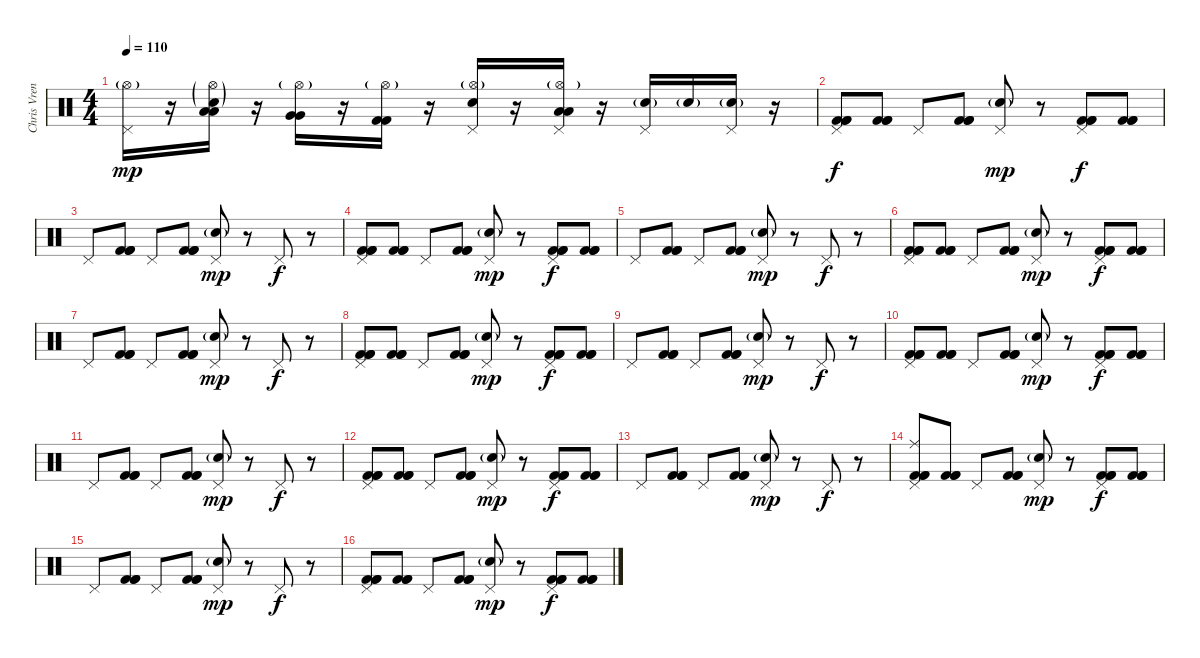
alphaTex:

\track ("Chris Vrenna " "Chris Vren") {instrument percussion}
\staff {score}
\articulation defaults
\ts (4 4)
\tempo 110
\clef neutral
\ks c
("Pedal Hi-Hat (hit)" "Hi-Hat (open)"{g}).16{dy mp} r.16 ("Snare (hit) 2"{g} "Hi-Hat (open)"{g} "Low Tom (hit)" "Low Tom (hit)").16 r.16 ("Hi-Hat (open)"{g} "Very Low Tom (hit)" "Very Low Tom (hit)").16 r.16 ("Hi-Hat (open)"{g} "Kick (hit) 2" "Kick (hit) 2").16 r.16 ("Pedal Hi-Hat (hit)" "Hi-Hat (open)"{g} "Electric Snare (hit)").16 r.16 ("Pedal Hi-Hat (hit)" "Hi-Hat (open)"{g} "Low Floor Tom (hit)" "Low Floor Tom (hit)").16 r.16 ("Electric Snare (hit)"{g} "Pedal Hi-Hat (hit)").16 "Electric Snare (hit)"{g}.16 ("Electric Snare (hit)"{g} "Pedal Hi-Hat (hit)").16 r.16 |
("Pedal Hi-Hat (hit)" "Kick (hit) 2" "Kick (hit) 2" "Kick (hit) 2").8{dy f} ("Kick (hit) 2" "Kick (hit) 2" "Kick (hit) 2").8 "Pedal Hi-Hat (hit)".8 ("Kick (hit) 2" "Kick (hit) 2" "Kick (hit) 2").8 ("Pedal Hi-Hat (hit)" "Electric Snare (hit)"{g}).8{dy mp} r.8 ("Pedal Hi-Hat (hit)" "Kick (hit) 2" "Kick (hit) 2" "Kick (hit) 2").8{dy f} ("Kick (hit) 2" "Kick (hit) 2" "Kick (hit) 2").8 |
"Pedal Hi-Hat (hit)".8 ("Kick (hit) 2" "Kick (hit) 2" "Kick (hit) 2").8 "Pedal Hi-Hat (hit)".8 ("Kick (hit) 2" "Kick (hit) 2" "Kick (hit) 2").8 ("Pedal Hi-Hat (hit)" "Electric Snare (hit)"{g}).8{dy mp} r.8 "Pedal Hi-Hat (hit)".8{dy f} r.8 |
("Pedal Hi-Hat (hit)" "Kick (hit) 2" "Kick (hit) 2" "Kick (hit) 2").8 ("Kick (hit) 2" "Kick (hit) 2" "Kick (hit) 2").8 "Pedal Hi-Hat (hit)".8 ("Kick (hit) 2" "Kick (hit) 2" "Kick (hit) 2").8 ("Pedal Hi-Hat (hit)" "Electric Snare (hit)"{g}).8{dy mp} r.8 ("Pedal Hi-Hat (hit)" "Kick (hit) 2" "Kick (hit) 2" "Kick (hit) 2").8{dy f} ("Kick (hit) 2" "Kick (hit) 2" "Kick (hit) 2").8 |
"Pedal Hi-Hat (hit)".8 ("Kick (hit) 2" "Kick (hit) 2" "Kick (hit) 2").8 "Pedal Hi-Hat (hit)".8 ("Kick (hit) 2" "Kick (hit) 2" "Kick (hit) 2").8 ("Pedal Hi-Hat (hit)" "Electric Snare (hit)"{g}).8{dy mp} r.8 "Pedal Hi-Hat (hit)".8{dy f} r.8 |
("Pedal Hi-Hat (hit)" "Kick (hit) 2" "Kick (hit) 2" "Kick (hit) 2").8 ("Kick (hit) 2" "Kick (hit) 2" "Kick (hit) 2").8 "Pedal Hi-Hat (hit)".8 ("Kick (hit) 2" "Kick (hit) 2" "Kick (hit) 2").8 ("Pedal Hi-Hat (hit)" "Electric Snare (hit)"{g}).8{dy mp} r.8 ("Pedal Hi-Hat (hit)" "Kick (hit) 2" "Kick (hit) 2" "Kick (hit) 2").8{dy f} ("Kick (hit) 2" "Kick (hit) 2" "Kick (hit) 2").8 |
"Pedal Hi-Hat (hit)".8 ("Kick (hit) 2" "Kick (hit) 2" "Kick (hit) 2").8 "Pedal Hi-Hat (hit)".8 ("Kick (hit) 2" "Kick (hit) 2" "Kick (hit) 2").8 ("Pedal Hi-Hat (hit)" "Electric Snare (hit)"{g}).8{dy mp} r.8 "Pedal Hi-Hat (hit)".8{dy f} r.8 |
("Pedal Hi-Hat (hit)" "Kick (hit) 2" "Kick (hit) 2" "Kick (hit) 2").8 ("Kick (hit) 2" "Kick (hit) 2" "Kick (hit) 2").8 "Pedal Hi-Hat (hit)".8 ("Kick (hit) 2" "Kick (hit) 2" "Kick (hit) 2").8 ("Pedal Hi-Hat (hit)" "Electric Snare (hit)"{g}).8{dy mp} r.8 ("Pedal Hi-Hat (hit)" "Kick (hit) 2" "Kick (hit) 2" "Kick (hit) 2").8{dy f} ("Kick (hit) 2" "Kick (hit) 2" "Kick (hit) 2").8 |
"Pedal Hi-Hat (hit)".8 ("Kick (hit) 2" "Kick (hit) 2" "Kick (hit) 2").8 "Pedal Hi-Hat (hit)".8 ("Kick (hit) 2" "Kick (hit) 2" "Kick (hit) 2").8 ("Pedal Hi-Hat (hit)" "Electric Snare (hit)"{g}).8{dy mp} r.8 "Pedal Hi-Hat (hit)".8{dy f} r.8 |
("Pedal Hi-Hat (hit)" "Kick (hit) 2" "Kick (hit) 2" "Kick (hit) 2").8 ("Kick (hit) 2" "Kick (hit) 2" "Kick (hit) 2").8 "Pedal Hi-Hat (hit)".8 ("Kick (hit) 2" "Kick (hit) 2" "Kick (hit) 2").8 ("Pedal Hi-Hat (hit)" "Electric Snare (hit)"{g}).8{dy mp} r.8 ("Pedal Hi-Hat (hit)" "Kick (hit) 2" "Kick (hit) 2" "Kick (hit) 2").8{dy f} ("Kick (hit) 2" "Kick (hit) 2" "Kick (hit) 2").8 |
"Pedal Hi-Hat (hit)".8 ("Kick (hit) 2" "Kick (hit) 2" "Kick (hit) 2").8 "Pedal Hi-Hat (hit)".8 ("Kick (hit) 2" "Kick (hit) 2" "Kick (hit) 2").8 ("Pedal Hi-Hat (hit)" "Electric Snare (hit)"{g}).8{dy mp} r.8 "Pedal Hi-Hat (hit)".8{dy f} r.8 |
("Pedal Hi-Hat (hit)" "Kick (hit) 2" "Kick (hit) 2" "Kick (hit) 2").8 ("Kick (hit) 2" "Kick (hit) 2" "Kick (hit) 2").8 "Pedal Hi-Hat (hit)".8 ("Kick (hit) 2" "Kick (hit) 2" "Kick (hit) 2").8 ("Pedal Hi-Hat (hit)" "Electric Snare (hit)"{g}).8{dy mp} r.8 ("Pedal Hi-Hat (hit)" "Kick (hit) 2" "Kick (hit) 2" "Kick (hit) 2").8{dy f} ("Kick (hit) 2" "Kick (hit) 2" "Kick (hit) 2").8 |
"Pedal Hi-Hat (hit)".8 ("Kick (hit) 2" "Kick (hit) 2" "Kick (hit) 2").8 "Pedal Hi-Hat (hit)".8 ("Kick (hit) 2" "Kick (hit) 2" "Kick (hit) 2").8 ("Pedal Hi-Hat (hit)" "Electric Snare (hit)"{g}).8{dy mp} r.8 "Pedal Hi-Hat (hit)".8{dy f} r.8 |
("Pedal Hi-Hat (hit)" "Ride (middle)" "Kick (hit) 2" "Kick (hit) 2" "Kick (hit) 2").8 ("Kick (hit) 2" "Kick (hit) 2" "Kick (hit) 2").8 "Pedal Hi-Hat (hit)".8 ("Kick (hit) 2" "Kick (hit) 2" "Kick (hit) 2").8 ("Pedal Hi-Hat (hit)" "Electric Snare (hit)"{g}).8{dy mp} r.8 ("Pedal Hi-Hat (hit)" "Kick (hit) 2" "Kick (hit) 2" "Kick (hit) 2").8{dy f} ("Kick (hit) 2" "Kick (hit) 2" "Kick (hit) 2").8 |
"Pedal Hi-Hat (hit)".8 ("Kick (hit) 2" "Kick (hit) 2" "Kick (hit) 2").8 "Pedal Hi-Hat (hit)".8 ("Kick (hit) 2" "Kick (hit) 2" "Kick (hit) 2").8 ("Pedal Hi-Hat (hit)" "Electric Snare (hit)"{g}).8{dy mp} r.8 "Pedal Hi-Hat (hit)".8{dy f} r.8 |
("Pedal Hi-Hat (hit)" "Kick (hit) 2" "Kick (hit) 2" "Kick (hit) 2").8 ("Kick (hit) 2" "Kick (hit) 2" "Kick (hit) 2").8 "Pedal Hi-Hat (hit)".8 ("Kick (hit) 2" "Kick (hit) 2" "Kick (hit) 2").8 ("Pedal Hi-Hat (hit)" "Electric Snare (hit)"{g}).8{dy mp} r.8 ("Pedal Hi-Hat (hit)" "Kick (hit) 2" "Kick (hit) 2" "Kick (hit) 2").8{dy f} ("Kick (hit) 2" "Kick (hit) 2" "Kick (hit) 2").8
